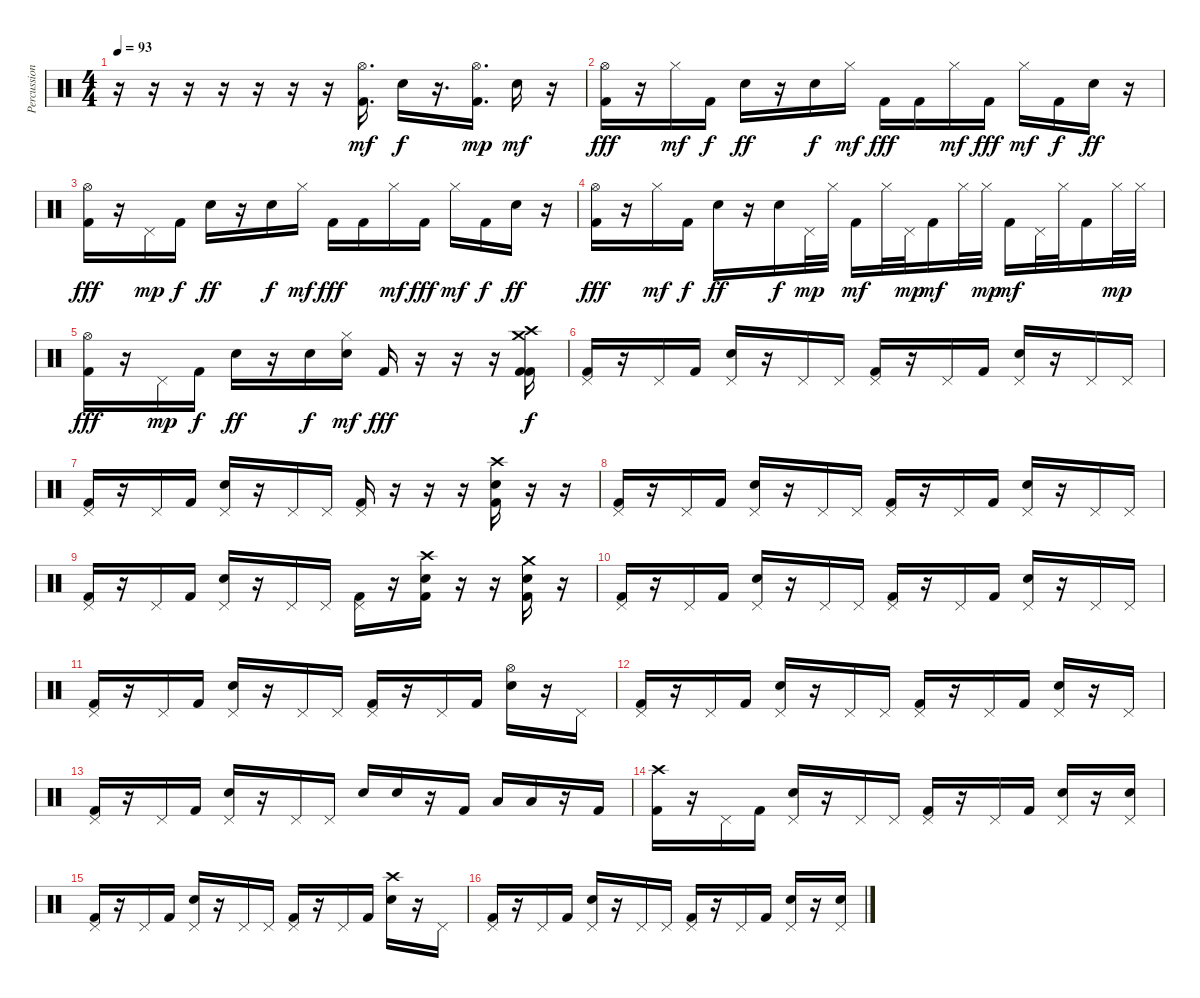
\track ("Percussion" "Percussion") {instrument percussion}
\staff {score}
\articulation defaults
\ts (4 4)
\tempo 93
\clef neutral
\ks c
r.16{dy mf} r.16 r.16 r.16 r.16 r.16 r.16 ("Hi-Hat (open)" "Kick (hit) 2").16{d} "Snare (hit) 2".16{dy f} r.16{d} ("Hi-Hat (open)" "Kick (hit) 2").16{d dy mp} "Snare (hit) 2".16{dy mf} r.16 |
("Hi-Hat (open)" "Kick (hit) 2").16{dy fff} r.16 "Hi-Hat (closed)".16{dy mf} "Kick (hit) 2".16{dy f} "Snare (hit) 2".16{dy ff} r.16 "Snare (hit) 2".16{dy f} "Hi-Hat (closed)".16{dy mf} "Kick (hit) 2".16{dy fff} "Kick (hit) 2".16 "Hi-Hat (closed)".16{dy mf} "Kick (hit) 2".16{dy fff} "Hi-Hat (closed)".16{dy mf} "Kick (hit) 2".16{dy f} "Snare (hit) 2".16{dy ff} r.16 |
("Hi-Hat (open)" "Kick (hit) 2").16{dy fff} r.16 "Pedal Hi-Hat (hit)".16{dy mp} "Kick (hit) 2".16{dy f} "Snare (hit) 2".16{dy ff} r.16 "Snare (hit) 2".16{dy f} "Hi-Hat (closed)".16{dy mf} "Kick (hit) 2".16{dy fff} "Kick (hit) 2".16 "Hi-Hat (closed)".16{dy mf} "Kick (hit) 2".16{dy fff} "Hi-Hat (closed)".16{dy mf} "Kick (hit) 2".16{dy f} "Snare (hit) 2".16{dy ff} r.16 |
("Hi-Hat (open)" "Kick (hit) 2").16{dy fff} r.16 "Hi-Hat (closed)".16{dy mf} "Kick (hit) 2".16{dy f} "Snare (hit) 2".16{dy ff} r.16 "Snare (hit) 2".16{dy f} "Pedal Hi-Hat (hit)".32{dy mp} "Hi-Hat (closed)".32 "Kick (hit) 2".16{dy mf} "Hi-Hat (closed)".32 "Pedal Hi-Hat (hit)".32{dy mp} "Kick (hit) 2".16{dy mf} "Hi-Hat (closed)".32 "Hi-Hat (closed)".32{dy mp} "Kick (hit) 2".16{dy mf} "Pedal Hi-Hat (hit)".32 "Hi-Hat (closed)".32 "Kick (hit) 2".16 "Hi-Hat (closed)".32{dy mp} "Hi-Hat (closed)".32 |
("Hi-Hat (open)" "Kick (hit) 2").16{dy fff} r.16 "Pedal Hi-Hat (hit)".16{dy mp} "Kick (hit) 2".16{dy f} "Snare (hit) 2".16{dy ff} r.16 "Snare (hit) 2".16{dy f} ("Hi-Hat (closed)" "Snare (hit) 2").16{dy mf} "Kick (hit) 2".16{dy fff} r.16 r.16 r.16 ("Crash medium (hit)" "Kick (hit) 2" "Crash high (hit)" "Kick (hit) 2").16{dy f} |
("Pedal Hi-Hat (hit)" "Kick (hit) 2").16 r.16 "Pedal Hi-Hat (hit)".16 "Kick (hit) 2".16 ("Pedal Hi-Hat (hit)" "Snare (hit) 2").16 r.16 "Pedal Hi-Hat (hit)".16 "Pedal Hi-Hat (hit)".16 ("Pedal Hi-Hat (hit)" "Kick (hit) 2").16 r.16 "Pedal Hi-Hat (hit)".16 "Kick (hit) 2".16 ("Pedal Hi-Hat (hit)" "Snare (hit) 2").16 r.16 "Pedal Hi-Hat (hit)".16 "Pedal Hi-Hat (hit)".16 |
("Pedal Hi-Hat (hit)" "Kick (hit) 2").16 r.16 "Pedal Hi-Hat (hit)".16 "Kick (hit) 2".16 ("Pedal Hi-Hat (hit)" "Snare (hit) 2").16 r.16 "Pedal Hi-Hat (hit)".16 "Pedal Hi-Hat (hit)".16 ("Pedal Hi-Hat (hit)" "Kick (hit) 2").16 r.16 r.16 r.16 ("Crash high (hit)" "Kick (hit) 2" "Snare (hit) 2").16 r.16 r.16 |
("Pedal Hi-Hat (hit)" "Kick (hit) 2").16 r.16 "Pedal Hi-Hat (hit)".16 "Kick (hit) 2".16 ("Pedal Hi-Hat (hit)" "Snare (hit) 2").16 r.16 "Pedal Hi-Hat (hit)".16 "Pedal Hi-Hat (hit)".16 ("Pedal Hi-Hat (hit)" "Kick (hit) 2").16 r.16 "Pedal Hi-Hat (hit)".16 "Kick (hit) 2".16 ("Pedal Hi-Hat (hit)" "Snare (hit) 2").16 r.16 "Pedal Hi-Hat (hit)".16 "Pedal Hi-Hat (hit)".16 |
("Pedal Hi-Hat (hit)" "Kick (hit) 2").16 r.16 "Pedal Hi-Hat (hit)".16 "Kick (hit) 2".16 ("Pedal Hi-Hat (hit)" "Snare (hit) 2").16 r.16 "Pedal Hi-Hat (hit)".16 "Pedal Hi-Hat (hit)".16 ("Pedal Hi-Hat (hit)" "Kick (hit) 2").16 r.16 ("Snare (hit) 2" "Crash high (hit)" "Kick (hit) 2").16 r.16 r.16 ("Snare (hit) 2" "Crash medium (hit)" "Kick (hit) 2").16 r.16 |
("Pedal Hi-Hat (hit)" "Kick (hit) 2").16 r.16 "Pedal Hi-Hat (hit)".16 "Kick (hit) 2".16 ("Pedal Hi-Hat (hit)" "Snare (hit) 2").16 r.16 "Pedal Hi-Hat (hit)".16 "Pedal Hi-Hat (hit)".16 ("Pedal Hi-Hat (hit)" "Kick (hit) 2").16 r.16 "Pedal Hi-Hat (hit)".16 "Kick (hit) 2".16 ("Pedal Hi-Hat (hit)" "Snare (hit) 2").16 r.16 "Pedal Hi-Hat (hit)".16 "Pedal Hi-Hat (hit)".16 |
("Pedal Hi-Hat (hit)" "Kick (hit) 2").16 r.16 "Pedal Hi-Hat (hit)".16 "Kick (hit) 2".16 ("Pedal Hi-Hat (hit)" "Snare (hit) 2").16 r.16 "Pedal Hi-Hat (hit)".16 "Pedal Hi-Hat (hit)".16 ("Pedal Hi-Hat (hit)" "Kick (hit) 2").16 r.16 "Pedal Hi-Hat (hit)".16 "Kick (hit) 2".16 ("Hi-Hat (open)" "Snare (hit) 2").16 r.16 "Pedal Hi-Hat (hit)".16 |
("Pedal Hi-Hat (hit)" "Kick (hit) 2").16 r.16 "Pedal Hi-Hat (hit)".16 "Kick (hit) 2".16 ("Pedal Hi-Hat (hit)" "Snare (hit) 2").16 r.16 "Pedal Hi-Hat (hit)".16 "Pedal Hi-Hat (hit)".16 ("Pedal Hi-Hat (hit)" "Kick (hit) 2").16 r.16 "Pedal Hi-Hat (hit)".16 "Kick (hit) 2".16 ("Pedal Hi-Hat (hit)" "Snare (hit) 2").16 r.16 "Pedal Hi-Hat (hit)".16 |
("Pedal Hi-Hat (hit)" "Kick (hit) 2").16 r.16 "Pedal Hi-Hat (hit)".16 "Kick (hit) 2".16 ("Pedal Hi-Hat (hit)" "Snare (hit) 2").16 r.16 "Pedal Hi-Hat (hit)".16 "Pedal Hi-Hat (hit)".16 "Snare (hit) 2".16 "Snare (hit) 2".16 r.16 "Kick (hit) 2".16 "Low Tom (hit)".16 "Low Tom (hit)".16 r.16 "Kick (hit) 2".16 |
("Crash high (hit)" "Kick (hit) 2").16 r.16 "Pedal Hi-Hat (hit)".16 "Kick (hit) 2".16 ("Pedal Hi-Hat (hit)" "Snare (hit) 2").16 r.16 "Pedal Hi-Hat (hit)".16 "Pedal Hi-Hat (hit)".16 ("Pedal Hi-Hat (hit)" "Kick (hit) 2").16 r.16 "Pedal Hi-Hat (hit)".16 "Kick (hit) 2".16 ("Pedal Hi-Hat (hit)" "Snare (hit) 2").16 r.16 ("Pedal Hi-Hat (hit)" "Snare (hit) 2").16 |
("Pedal Hi-Hat (hit)" "Kick (hit) 2").16 r.16 "Pedal Hi-Hat (hit)".16 "Kick (hit) 2".16 ("Pedal Hi-Hat (hit)" "Snare (hit) 2").16 r.16 "Pedal Hi-Hat (hit)".16 "Pedal Hi-Hat (hit)".16 ("Pedal Hi-Hat (hit)" "Kick (hit) 2").16 r.16 "Pedal Hi-Hat (hit)".16 "Kick (hit) 2".16 ("Crash high (hit)" "Snare (hit) 2").16 r.16 "Pedal Hi-Hat (hit)".16 |
("Pedal Hi-Hat (hit)" "Kick (hit) 2").16 r.16 "Pedal Hi-Hat (hit)".16 "Kick (hit) 2".16 ("Pedal Hi-Hat (hit)" "Snare (hit) 2").16 r.16 "Pedal Hi-Hat (hit)".16 "Pedal Hi-Hat (hit)".16 ("Pedal Hi-Hat (hit)" "Kick (hit) 2").16 r.16 "Pedal Hi-Hat (hit)".16 "Kick (hit) 2".16 ("Pedal Hi-Hat (hit)" "Snare (hit) 2").16 r.16 ("Pedal Hi-Hat (hit)" "Snare (hit) 2").16
